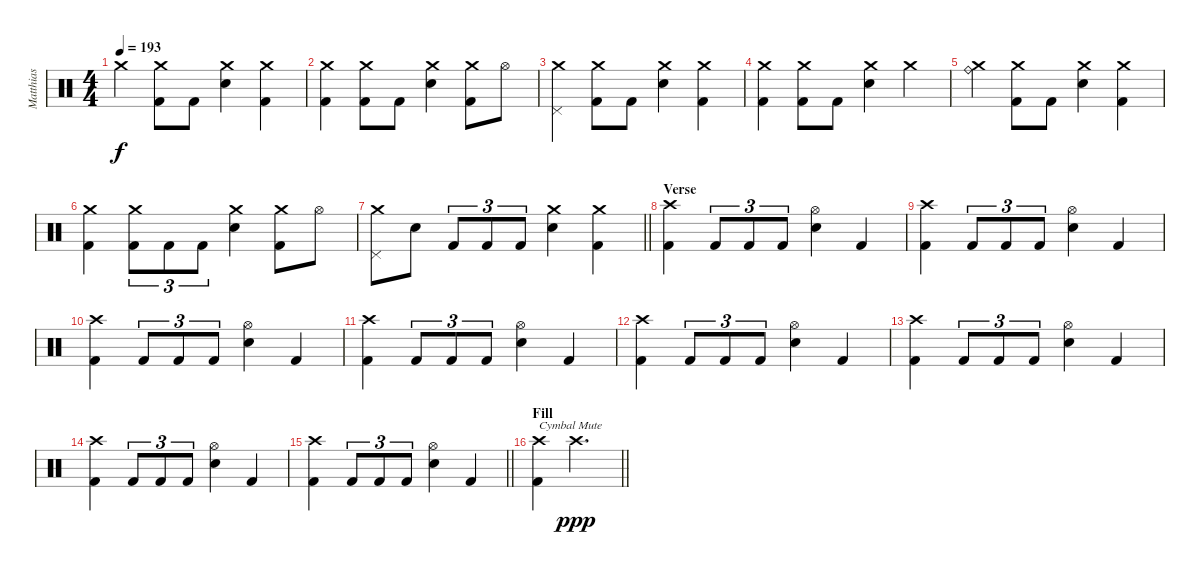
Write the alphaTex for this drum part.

\track ("Matthias" "Matthias") {instrument percussion}
\staff {score}
\articulation defaults
\ts (4 4)
\tempo 193
\clef neutral
\ks c "Crash medium (hit)".4{dy f}
("Crash medium (hit)" "Kick (hit) 2").8 "Kick (hit) 2".8 ("Crash medium (hit)" "Electric Snare (hit)").4 ("Crash medium (hit)" "Kick (hit) 2").4 |
("Crash medium (hit)" "Kick (hit) 2").4 ("Crash medium (hit)" "Kick (hit) 2").8 "Kick (hit) 2".8 ("Crash medium (hit)" "Electric Snare (hit)").4 ("Crash medium (hit)" "Kick (hit) 2").8 "Hi-Hat (open)".8 |
("Crash medium (hit)" "Pedal Hi-Hat (hit)").4 ("Crash medium (hit)" "Kick (hit) 2").8 "Kick (hit) 2".8 ("Crash medium (hit)" "Electric Snare (hit)").4 ("Crash medium (hit)" "Kick (hit) 2").4 |
("Crash medium (hit)" "Kick (hit) 2").4 ("Crash medium (hit)" "Kick (hit) 2").8 "Kick (hit) 2".8 ("Crash medium (hit)" "Electric Snare (hit)").4 "Crash medium (hit)".4 |
("Crash medium (hit)" "Ride (bell)").4 ("Crash medium (hit)" "Kick (hit) 2").8 "Kick (hit) 2".8 ("Crash medium (hit)" "Electric Snare (hit)").4 ("Crash medium (hit)" "Kick (hit) 2").4 |
("Crash medium (hit)" "Kick (hit) 2").4 ("Crash medium (hit)" "Kick (hit) 2").8{tu (3 2)} "Kick (hit) 2".8{tu (3 2)} "Kick (hit) 2".8{tu (3 2)} ("Crash medium (hit)" "Electric Snare (hit)").4 ("Crash medium (hit)" "Kick (hit) 2").8 "Hi-Hat (open)".8 |
\barLineRight lightlight
("Crash medium (hit)" "Pedal Hi-Hat (hit)").8 "Electric Snare (hit)".8 "Kick (hit) 2".8{tu (3 2)} "Kick (hit) 2".8{tu (3 2)} "Kick (hit) 2".8{tu (3 2)} ("Crash medium (hit)" "Electric Snare (hit)").4 ("Crash medium (hit)" "Kick (hit) 2").4 |
\section ("" "Verse")
("Crash high (hit)" "Kick (hit) 2").4 "Kick (hit) 2".8{tu (3 2)} "Kick (hit) 2".8{tu (3 2)} "Kick (hit) 2".8{tu (3 2)} ("Hi-Hat (open)" "Electric Snare (hit)").4 "Kick (hit) 2".4 |
("Crash high (hit)" "Kick (hit) 2").4 "Kick (hit) 2".8{tu (3 2)} "Kick (hit) 2".8{tu (3 2)} "Kick (hit) 2".8{tu (3 2)} ("Hi-Hat (open)" "Electric Snare (hit)").4 "Kick (hit) 2".4 |
("Crash high (hit)" "Kick (hit) 2").4 "Kick (hit) 2".8{tu (3 2)} "Kick (hit) 2".8{tu (3 2)} "Kick (hit) 2".8{tu (3 2)} ("Hi-Hat (open)" "Electric Snare (hit)").4 "Kick (hit) 2".4 |
("Crash high (hit)" "Kick (hit) 2").4 "Kick (hit) 2".8{tu (3 2)} "Kick (hit) 2".8{tu (3 2)} "Kick (hit) 2".8{tu (3 2)} ("Hi-Hat (open)" "Electric Snare (hit)").4 "Kick (hit) 2".4 |
("Crash high (hit)" "Kick (hit) 2").4 "Kick (hit) 2".8{tu (3 2)} "Kick (hit) 2".8{tu (3 2)} "Kick (hit) 2".8{tu (3 2)} ("Hi-Hat (open)" "Electric Snare (hit)").4 "Kick (hit) 2".4 |
("Crash high (hit)" "Kick (hit) 2").4 "Kick (hit) 2".8{tu (3 2)} "Kick (hit) 2".8{tu (3 2)} "Kick (hit) 2".8{tu (3 2)} ("Hi-Hat (open)" "Electric Snare (hit)").4 "Kick (hit) 2".4 |
("Crash high (hit)" "Kick (hit) 2").4 "Kick (hit) 2".8{tu (3 2)} "Kick (hit) 2".8{tu (3 2)} "Kick (hit) 2".8{tu (3 2)} ("Hi-Hat (open)" "Electric Snare (hit)").4 "Kick (hit) 2".4 |
\barLineRight lightlight
("Crash high (hit)" "Kick (hit) 2").4 "Kick (hit) 2".8{tu (3 2)} "Kick (hit) 2".8{tu (3 2)} "Kick (hit) 2".8{tu (3 2)} ("Hi-Hat (open)" "Electric Snare (hit)").4 "Kick (hit) 2".4 |
\section ("" "Fill")
\barLineRight lightlight
("Crash high (hit)" "Kick (hit) 2").4{txt "Cymbal Mute"} "Crash high (hit)".2{d dy ppp}
